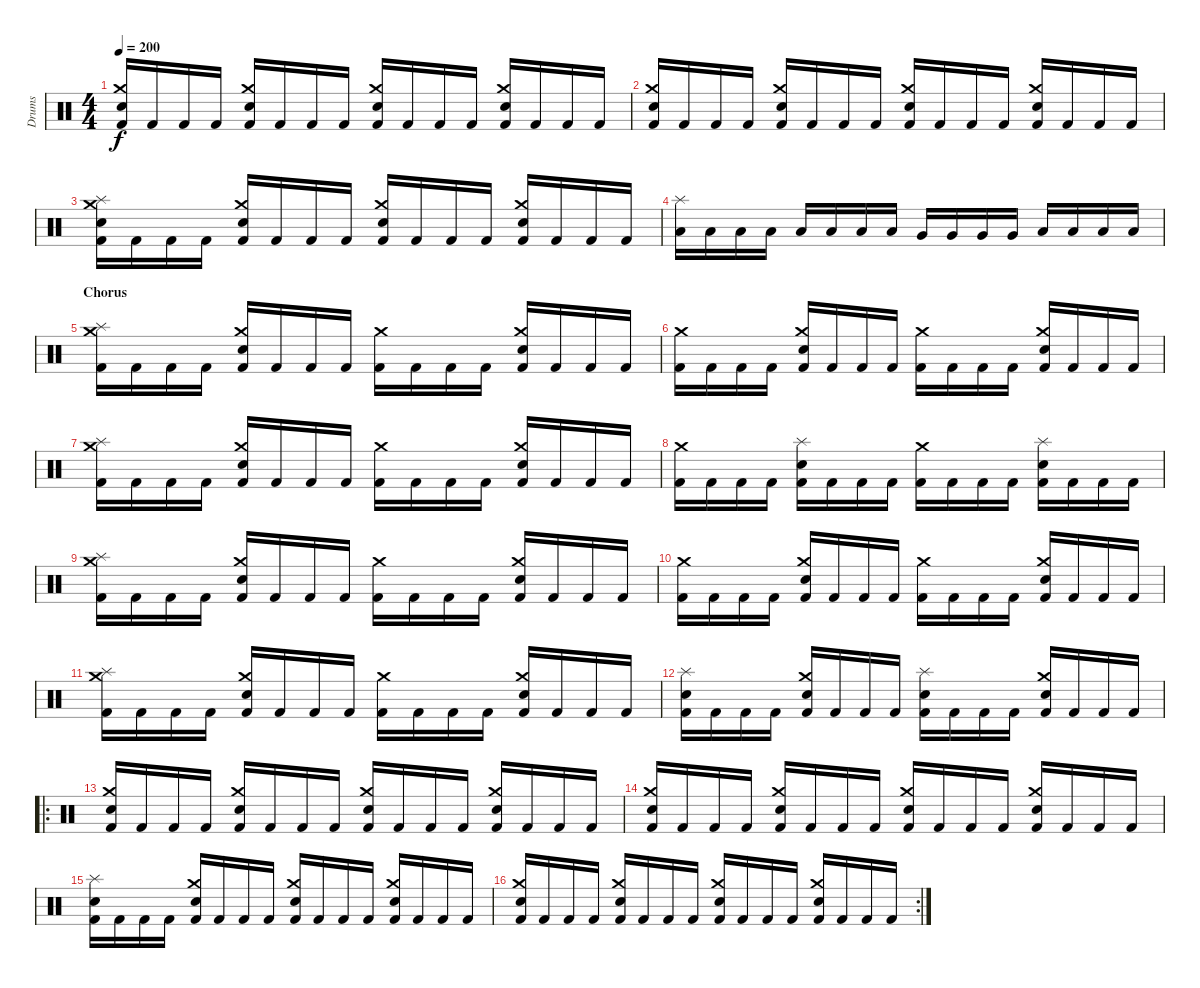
\track ("Drums" "Drums") {instrument percussion}
\staff {score}
\articulation defaults
\ts (4 4)
\tempo 200
\clef neutral
\ks c
("Kick (hit) 2" "Crash medium (hit)" "Snare (hit) 2").16{dy f} "Kick (hit) 2".16 "Kick (hit) 2".16 "Kick (hit) 2".16 ("Kick (hit) 2" "Crash medium (hit)" "Snare (hit) 2").16 "Kick (hit) 2".16 "Kick (hit) 2".16 "Kick (hit) 2".16 ("Kick (hit) 2" "Crash medium (hit)" "Snare (hit) 2").16 "Kick (hit) 2".16 "Kick (hit) 2".16 "Kick (hit) 2".16 ("Kick (hit) 2" "Crash medium (hit)" "Snare (hit) 2").16 "Kick (hit) 2".16 "Kick (hit) 2".16 "Kick (hit) 2".16 |
("Kick (hit) 2" "Crash medium (hit)" "Snare (hit) 2").16 "Kick (hit) 2".16 "Kick (hit) 2".16 "Kick (hit) 2".16 ("Kick (hit) 2" "Crash medium (hit)" "Snare (hit) 2").16 "Kick (hit) 2".16 "Kick (hit) 2".16 "Kick (hit) 2".16 ("Kick (hit) 2" "Crash medium (hit)" "Snare (hit) 2").16 "Kick (hit) 2".16 "Kick (hit) 2".16 "Kick (hit) 2".16 ("Kick (hit) 2" "Crash medium (hit)" "Snare (hit) 2").16 "Kick (hit) 2".16 "Kick (hit) 2".16 "Kick (hit) 2".16 |
("Kick (hit) 2" "Crash medium (hit)" "Snare (hit) 2" "Splash (hit)").16 "Kick (hit) 2".16 "Kick (hit) 2".16 "Kick (hit) 2".16 ("Kick (hit) 2" "Crash medium (hit)" "Snare (hit) 2").16 "Kick (hit) 2".16 "Kick (hit) 2".16 "Kick (hit) 2".16 ("Kick (hit) 2" "Crash medium (hit)" "Snare (hit) 2").16 "Kick (hit) 2".16 "Kick (hit) 2".16 "Kick (hit) 2".16 ("Kick (hit) 2" "Crash medium (hit)" "Snare (hit) 2").16 "Kick (hit) 2".16 "Kick (hit) 2".16 "Kick (hit) 2".16 |
("Low Floor Tom (hit)" "Splash (hit)").16 "Low Floor Tom (hit)".16 "Low Floor Tom (hit)".16 "Low Floor Tom (hit)".16 "Low Floor Tom (hit)".16 "Low Floor Tom (hit)".16 "Low Floor Tom (hit)".16 "Low Floor Tom (hit)".16 "Very Low Tom (hit)".16 "Very Low Tom (hit)".16 "Very Low Tom (hit)".16 "Very Low Tom (hit)".16 "Low Tom (hit)".16 "Low Tom (hit)".16 "Low Tom (hit)".16 "Low Tom (hit)".16 |
\section ("" "Chorus ")
("Kick (hit) 2" "Crash medium (hit)" "Splash (hit)").16 "Kick (hit) 2".16 "Kick (hit) 2".16 "Kick (hit) 2".16 ("Kick (hit) 2" "Crash medium (hit)" "Snare (hit) 2").16 "Kick (hit) 2".16 "Kick (hit) 2".16 "Kick (hit) 2".16 ("Kick (hit) 2" "Crash medium (hit)").16 "Kick (hit) 2".16 "Kick (hit) 2".16 "Kick (hit) 2".16 ("Kick (hit) 2" "Crash medium (hit)" "Snare (hit) 2").16 "Kick (hit) 2".16 "Kick (hit) 2".16 "Kick (hit) 2".16 |
("Kick (hit) 2" "Crash medium (hit)").16 "Kick (hit) 2".16 "Kick (hit) 2".16 "Kick (hit) 2".16 ("Kick (hit) 2" "Crash medium (hit)" "Snare (hit) 2").16 "Kick (hit) 2".16 "Kick (hit) 2".16 "Kick (hit) 2".16 ("Kick (hit) 2" "Crash medium (hit)").16 "Kick (hit) 2".16 "Kick (hit) 2".16 "Kick (hit) 2".16 ("Kick (hit) 2" "Crash medium (hit)" "Snare (hit) 2").16 "Kick (hit) 2".16 "Kick (hit) 2".16 "Kick (hit) 2".16 |
("Kick (hit) 2" "Crash medium (hit)" "Splash (hit)").16 "Kick (hit) 2".16 "Kick (hit) 2".16 "Kick (hit) 2".16 ("Kick (hit) 2" "Crash medium (hit)" "Snare (hit) 2").16 "Kick (hit) 2".16 "Kick (hit) 2".16 "Kick (hit) 2".16 ("Kick (hit) 2" "Crash medium (hit)").16 "Kick (hit) 2".16 "Kick (hit) 2".16 "Kick (hit) 2".16 ("Kick (hit) 2" "Crash medium (hit)" "Snare (hit) 2").16 "Kick (hit) 2".16 "Kick (hit) 2".16 "Kick (hit) 2".16 |
("Kick (hit) 2" "Crash medium (hit)").16 "Kick (hit) 2".16 "Kick (hit) 2".16 "Kick (hit) 2".16 ("Kick (hit) 2" "Snare (hit) 2" "Splash (hit)").16 "Kick (hit) 2".16 "Kick (hit) 2".16 "Kick (hit) 2".16 ("Kick (hit) 2" "Crash medium (hit)").16 "Kick (hit) 2".16 "Kick (hit) 2".16 "Kick (hit) 2".16 ("Kick (hit) 2" "Snare (hit) 2" "Splash (hit)").16 "Kick (hit) 2".16 "Kick (hit) 2".16 "Kick (hit) 2".16 |
("Kick (hit) 2" "Crash medium (hit)" "Splash (hit)").16 "Kick (hit) 2".16 "Kick (hit) 2".16 "Kick (hit) 2".16 ("Kick (hit) 2" "Crash medium (hit)" "Snare (hit) 2").16 "Kick (hit) 2".16 "Kick (hit) 2".16 "Kick (hit) 2".16 ("Kick (hit) 2" "Crash medium (hit)").16 "Kick (hit) 2".16 "Kick (hit) 2".16 "Kick (hit) 2".16 ("Kick (hit) 2" "Crash medium (hit)" "Snare (hit) 2").16 "Kick (hit) 2".16 "Kick (hit) 2".16 "Kick (hit) 2".16 |
("Kick (hit) 2" "Crash medium (hit)").16 "Kick (hit) 2".16 "Kick (hit) 2".16 "Kick (hit) 2".16 ("Kick (hit) 2" "Crash medium (hit)" "Snare (hit) 2").16 "Kick (hit) 2".16 "Kick (hit) 2".16 "Kick (hit) 2".16 ("Kick (hit) 2" "Crash medium (hit)").16 "Kick (hit) 2".16 "Kick (hit) 2".16 "Kick (hit) 2".16 ("Kick (hit) 2" "Crash medium (hit)" "Snare (hit) 2").16 "Kick (hit) 2".16 "Kick (hit) 2".16 "Kick (hit) 2".16 |
("Kick (hit) 2" "Crash medium (hit)" "Splash (hit)").16 "Kick (hit) 2".16 "Kick (hit) 2".16 "Kick (hit) 2".16 ("Kick (hit) 2" "Crash medium (hit)" "Snare (hit) 2").16 "Kick (hit) 2".16 "Kick (hit) 2".16 "Kick (hit) 2".16 ("Kick (hit) 2" "Crash medium (hit)").16 "Kick (hit) 2".16 "Kick (hit) 2".16 "Kick (hit) 2".16 ("Kick (hit) 2" "Crash medium (hit)" "Snare (hit) 2").16 "Kick (hit) 2".16 "Kick (hit) 2".16 "Kick (hit) 2".16 |
("Kick (hit) 2" "Snare (hit) 2" "Splash (hit)").16 "Kick (hit) 2".16 "Kick (hit) 2".16 "Kick (hit) 2".16 ("Kick (hit) 2" "Crash medium (hit)" "Snare (hit) 2").16 "Kick (hit) 2".16 "Kick (hit) 2".16 "Kick (hit) 2".16 ("Kick (hit) 2" "Snare (hit) 2" "Splash (hit)").16 "Kick (hit) 2".16 "Kick (hit) 2".16 "Kick (hit) 2".16 ("Kick (hit) 2" "Crash medium (hit)" "Snare (hit) 2").16 "Kick (hit) 2".16 "Kick (hit) 2".16 "Kick (hit) 2".16 |
\ro
("Kick (hit) 2" "Crash medium (hit)" "Snare (hit) 2").16 "Kick (hit) 2".16 "Kick (hit) 2".16 "Kick (hit) 2".16 ("Kick (hit) 2" "Crash medium (hit)" "Snare (hit) 2").16 "Kick (hit) 2".16 "Kick (hit) 2".16 "Kick (hit) 2".16 ("Kick (hit) 2" "Crash medium (hit)" "Snare (hit) 2").16 "Kick (hit) 2".16 "Kick (hit) 2".16 "Kick (hit) 2".16 ("Kick (hit) 2" "Crash medium (hit)" "Snare (hit) 2").16 "Kick (hit) 2".16 "Kick (hit) 2".16 "Kick (hit) 2".16 |
("Kick (hit) 2" "Crash medium (hit)" "Snare (hit) 2").16 "Kick (hit) 2".16 "Kick (hit) 2".16 "Kick (hit) 2".16 ("Kick (hit) 2" "Crash medium (hit)" "Snare (hit) 2").16 "Kick (hit) 2".16 "Kick (hit) 2".16 "Kick (hit) 2".16 ("Kick (hit) 2" "Crash medium (hit)" "Snare (hit) 2").16 "Kick (hit) 2".16 "Kick (hit) 2".16 "Kick (hit) 2".16 ("Kick (hit) 2" "Crash medium (hit)" "Snare (hit) 2").16 "Kick (hit) 2".16 "Kick (hit) 2".16 "Kick (hit) 2".16 |
("Kick (hit) 2" "Snare (hit) 2" "Splash (hit)").16 "Kick (hit) 2".16 "Kick (hit) 2".16 "Kick (hit) 2".16 ("Kick (hit) 2" "Crash medium (hit)" "Snare (hit) 2").16 "Kick (hit) 2".16 "Kick (hit) 2".16 "Kick (hit) 2".16 ("Kick (hit) 2" "Crash medium (hit)" "Snare (hit) 2").16 "Kick (hit) 2".16 "Kick (hit) 2".16 "Kick (hit) 2".16 ("Kick (hit) 2" "Crash medium (hit)" "Snare (hit) 2").16 "Kick (hit) 2".16 "Kick (hit) 2".16 "Kick (hit) 2".16 |
\rc 2
("Kick (hit) 2" "Crash medium (hit)" "Snare (hit) 2").16 "Kick (hit) 2".16 "Kick (hit) 2".16 "Kick (hit) 2".16 ("Kick (hit) 2" "Crash medium (hit)" "Snare (hit) 2").16 "Kick (hit) 2".16 "Kick (hit) 2".16 "Kick (hit) 2".16 ("Kick (hit) 2" "Crash medium (hit)" "Snare (hit) 2").16 "Kick (hit) 2".16 "Kick (hit) 2".16 "Kick (hit) 2".16 ("Kick (hit) 2" "Crash medium (hit)" "Snare (hit) 2").16 "Kick (hit) 2".16 "Kick (hit) 2".16 "Kick (hit) 2".16
